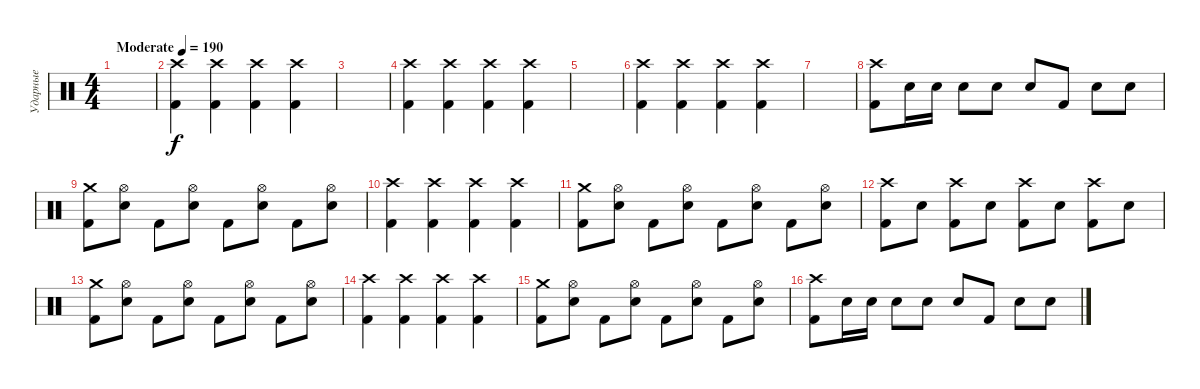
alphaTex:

\track ("Ударные" "Ударные") {instrument percussion}
\staff {score}
\articulation defaults
\ts (4 4)
\tempo (190 "Moderate")
\clef neutral
\ks c
|
("Crash high (hit)" "Kick (hit) 2").4 ("Crash high (hit)" "Kick (hit) 2").4 ("Crash high (hit)" "Kick (hit) 2").4 ("Crash high (hit)" "Kick (hit) 2").4 |
|
("Crash high (hit)" "Kick (hit) 2").4 ("Crash high (hit)" "Kick (hit) 2").4 ("Crash high (hit)" "Kick (hit) 2").4 ("Crash high (hit)" "Kick (hit) 2").4 |
|
("Crash high (hit)" "Kick (hit) 2").4 ("Crash high (hit)" "Kick (hit) 2").4 ("Crash high (hit)" "Kick (hit) 2").4 ("Crash high (hit)" "Kick (hit) 2").4 |
|
("Crash high (hit)" "Kick (hit) 2").8 "Electric Snare (hit)".16 "Electric Snare (hit)".16 "Electric Snare (hit)".8 "Electric Snare (hit)".8 "Electric Snare (hit)".8 "Kick (hit) 2".8 "Electric Snare (hit)".8 "Electric Snare (hit)".8 |
("Crash medium (hit)" "Kick (hit) 2").8 ("Hi-Hat (open)" "Electric Snare (hit)").8 "Kick (hit) 2".8 ("Hi-Hat (open)" "Electric Snare (hit)").8 "Kick (hit) 2".8 ("Hi-Hat (open)" "Electric Snare (hit)").8 "Kick (hit) 2".8 ("Hi-Hat (open)" "Electric Snare (hit)").8 |
("Crash high (hit)" "Kick (hit) 2").4 ("Crash high (hit)" "Kick (hit) 2").4 ("Crash high (hit)" "Kick (hit) 2").4 ("Crash high (hit)" "Kick (hit) 2").4 |
("Crash medium (hit)" "Kick (hit) 2").8 ("Hi-Hat (open)" "Electric Snare (hit)").8 "Kick (hit) 2".8 ("Hi-Hat (open)" "Electric Snare (hit)").8 "Kick (hit) 2".8 ("Hi-Hat (open)" "Electric Snare (hit)").8 "Kick (hit) 2".8 ("Hi-Hat (open)" "Electric Snare (hit)").8 |
("Crash high (hit)" "Kick (hit) 2").8 "Electric Snare (hit)".8 ("Crash high (hit)" "Kick (hit) 2").8 "Electric Snare (hit)".8 ("Crash high (hit)" "Kick (hit) 2").8 "Electric Snare (hit)".8 ("Crash high (hit)" "Kick (hit) 2").8 "Electric Snare (hit)".8 |
("Crash medium (hit)" "Kick (hit) 2").8 ("Hi-Hat (open)" "Electric Snare (hit)").8 "Kick (hit) 2".8 ("Hi-Hat (open)" "Electric Snare (hit)").8 "Kick (hit) 2".8 ("Hi-Hat (open)" "Electric Snare (hit)").8 "Kick (hit) 2".8 ("Hi-Hat (open)" "Electric Snare (hit)").8 |
("Crash high (hit)" "Kick (hit) 2").4 ("Crash high (hit)" "Kick (hit) 2").4 ("Crash high (hit)" "Kick (hit) 2").4 ("Crash high (hit)" "Kick (hit) 2").4 |
("Crash medium (hit)" "Kick (hit) 2").8 ("Hi-Hat (open)" "Electric Snare (hit)").8 "Kick (hit) 2".8 ("Hi-Hat (open)" "Electric Snare (hit)").8 "Kick (hit) 2".8 ("Hi-Hat (open)" "Electric Snare (hit)").8 "Kick (hit) 2".8 ("Hi-Hat (open)" "Electric Snare (hit)").8 |
("Crash high (hit)" "Kick (hit) 2").8 "Electric Snare (hit)".16 "Electric Snare (hit)".16 "Electric Snare (hit)".8 "Electric Snare (hit)".8 "Electric Snare (hit)".8 "Kick (hit) 2".8 "Electric Snare (hit)".8 "Electric Snare (hit)".8
